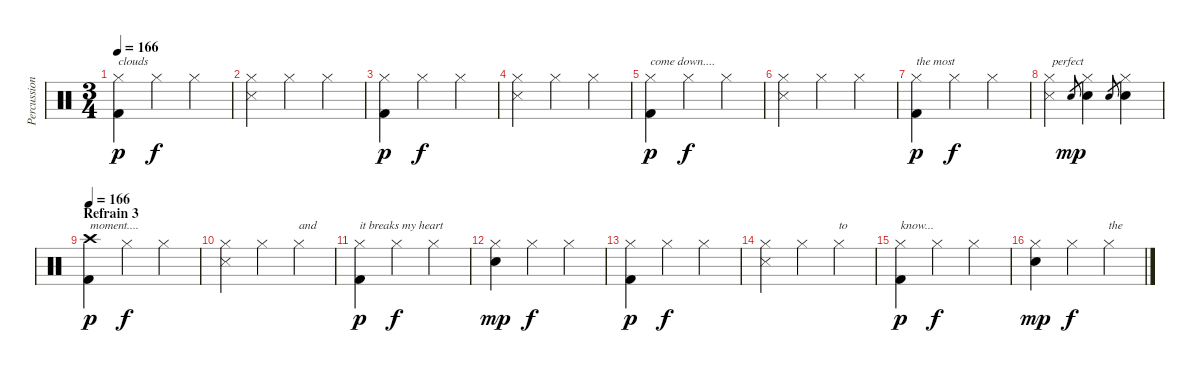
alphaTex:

\track ("Percussion" "Percussion") {instrument percussion}
\staff {score}
\articulation defaults
\ts (3 4)
\tempo 166
\clef neutral
\ks c
("Hi-Hat (closed)" "Kick (hit) 2").4{txt "clouds" dy p} "Hi-Hat (closed)".4{dy f} "Hi-Hat (closed)".4 |
("Hi-Hat (closed)" "Snare (side stick) 3").4 "Hi-Hat (closed)".4 "Hi-Hat (closed)".4 |
("Hi-Hat (closed)" "Kick (hit) 2").4{dy p} "Hi-Hat (closed)".4{dy f} "Hi-Hat (closed)".4 |
("Hi-Hat (closed)" "Snare (side stick) 3").4 "Hi-Hat (closed)".4 "Hi-Hat (closed)".4 |
("Hi-Hat (closed)" "Kick (hit) 2").4{txt "come down...." dy p} "Hi-Hat (closed)".4{dy f} "Hi-Hat (closed)".4 |
("Hi-Hat (closed)" "Snare (side stick) 3").4 "Hi-Hat (closed)".4 "Hi-Hat (closed)".4 |
("Hi-Hat (closed)" "Kick (hit) 2").4{txt "the most" dy p} "Hi-Hat (closed)".4{dy f} "Hi-Hat (closed)".4 |
("Hi-Hat (closed)" "Snare (side stick) 3").4{txt " perfect"} "Electric Snare (hit)".8{gr dy mp} ("Hi-Hat (closed)" "Electric Snare (hit)").4 "Electric Snare (hit)".8{gr} ("Hi-Hat (closed)" "Electric Snare (hit)").4 |
\section ("" "Refrain 3")
\tempo 166
("Crash high (hit)" "Kick (hit) 2").4{txt "moment...." dy p} "Hi-Hat (closed)".4{dy f} "Hi-Hat (closed)".4 |
("Hi-Hat (closed)" "Snare (side stick) 3").4 "Hi-Hat (closed)".4 "Hi-Hat (closed)".4{txt "and"} |
("Hi-Hat (closed)" "Kick (hit) 2").4{txt "it breaks my heart" dy p} "Hi-Hat (closed)".4{dy f} "Hi-Hat (closed)".4 |
("Hi-Hat (closed)" "Snare (hit) 2").4{dy mp} "Hi-Hat (closed)".4{dy f} "Hi-Hat (closed)".4 |
("Hi-Hat (closed)" "Kick (hit) 2").4{dy p} "Hi-Hat (closed)".4{dy f} "Hi-Hat (closed)".4 |
("Hi-Hat (closed)" "Snare (side stick) 3").4 "Hi-Hat (closed)".4 "Hi-Hat (closed)".4{txt "to"} |
("Hi-Hat (closed)" "Kick (hit) 2").4{txt "know..." dy p} "Hi-Hat (closed)".4{dy f} "Hi-Hat (closed)".4 |
("Hi-Hat (closed)" "Snare (hit) 2").4{dy mp} "Hi-Hat (closed)".4{dy f} "Hi-Hat (closed)".4{txt "the"}
